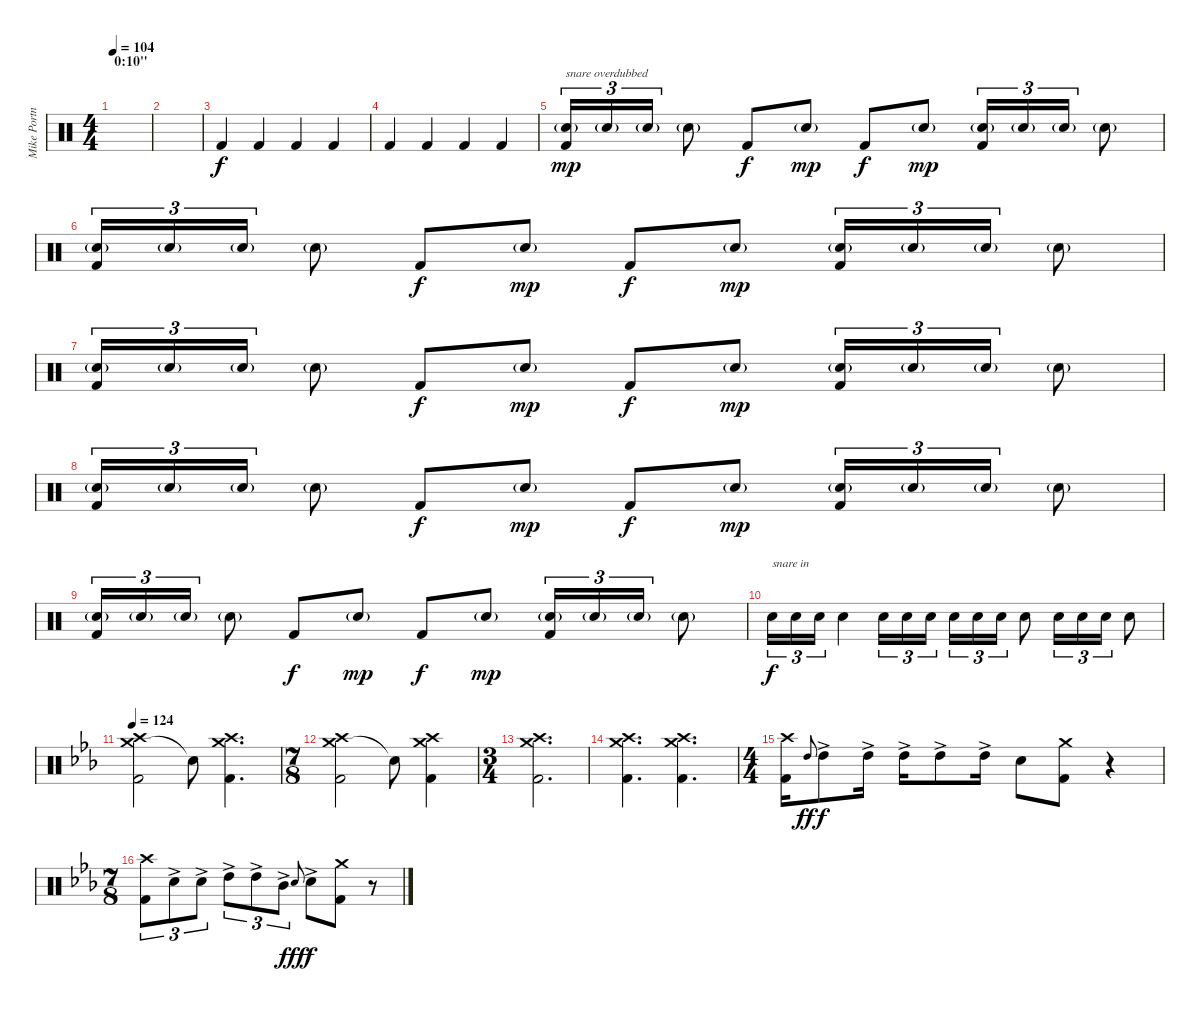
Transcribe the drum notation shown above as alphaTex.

\track ("Mike Portnoy" "Mike Portn") {instrument percussion}
\staff {score}
\articulation defaults
\ts (4 4)
\section ("" "0:10''")
\tempo 104
\clef neutral
\ks c
|
|
"Kick (hit) 2".4 "Kick (hit) 2".4 "Kick (hit) 2".4 "Kick (hit) 2".4 |
"Kick (hit) 2".4 "Kick (hit) 2".4 "Kick (hit) 2".4 "Kick (hit) 2".4 |
("Snare (hit) 2"{g} "Kick (hit) 2").16{tu (3 2) txt "snare overdubbed" dy mp} "Snare (hit) 2"{g}.16{tu (3 2)} "Snare (hit) 2"{g}.16{tu (3 2)} "Snare (hit) 2"{g}.8 "Kick (hit) 2".8{dy f} "Snare (hit) 2"{g}.8{dy mp} "Kick (hit) 2".8{dy f} "Snare (hit) 2"{g}.8{dy mp} ("Snare (hit) 2"{g} "Kick (hit) 2").16{tu (3 2)} "Snare (hit) 2"{g}.16{tu (3 2)} "Snare (hit) 2"{g}.16{tu (3 2)} "Snare (hit) 2"{g}.8 |
("Snare (hit) 2"{g} "Kick (hit) 2").16{tu (3 2)} "Snare (hit) 2"{g}.16{tu (3 2)} "Snare (hit) 2"{g}.16{tu (3 2)} "Snare (hit) 2"{g}.8 "Kick (hit) 2".8{dy f} "Snare (hit) 2"{g}.8{dy mp} "Kick (hit) 2".8{dy f} "Snare (hit) 2"{g}.8{dy mp} ("Snare (hit) 2"{g} "Kick (hit) 2").16{tu (3 2)} "Snare (hit) 2"{g}.16{tu (3 2)} "Snare (hit) 2"{g}.16{tu (3 2)} "Snare (hit) 2"{g}.8 |
("Snare (hit) 2"{g} "Kick (hit) 2").16{tu (3 2)} "Snare (hit) 2"{g}.16{tu (3 2)} "Snare (hit) 2"{g}.16{tu (3 2)} "Snare (hit) 2"{g}.8 "Kick (hit) 2".8{dy f} "Snare (hit) 2"{g}.8{dy mp} "Kick (hit) 2".8{dy f} "Snare (hit) 2"{g}.8{dy mp} ("Snare (hit) 2"{g} "Kick (hit) 2").16{tu (3 2)} "Snare (hit) 2"{g}.16{tu (3 2)} "Snare (hit) 2"{g}.16{tu (3 2)} "Snare (hit) 2"{g}.8 |
("Snare (hit) 2"{g} "Kick (hit) 2").16{tu (3 2)} "Snare (hit) 2"{g}.16{tu (3 2)} "Snare (hit) 2"{g}.16{tu (3 2)} "Snare (hit) 2"{g}.8 "Kick (hit) 2".8{dy f} "Snare (hit) 2"{g}.8{dy mp} "Kick (hit) 2".8{dy f} "Snare (hit) 2"{g}.8{dy mp} ("Snare (hit) 2"{g} "Kick (hit) 2").16{tu (3 2)} "Snare (hit) 2"{g}.16{tu (3 2)} "Snare (hit) 2"{g}.16{tu (3 2)} "Snare (hit) 2"{g}.8 |
("Snare (hit) 2"{g} "Kick (hit) 2").16{tu (3 2)} "Snare (hit) 2"{g}.16{tu (3 2)} "Snare (hit) 2"{g}.16{tu (3 2)} "Snare (hit) 2"{g}.8 "Kick (hit) 2".8{dy f} "Snare (hit) 2"{g}.8{dy mp} "Kick (hit) 2".8{dy f} "Snare (hit) 2"{g}.8{dy mp} ("Snare (hit) 2"{g} "Kick (hit) 2").16{tu (3 2)} "Snare (hit) 2"{g}.16{tu (3 2)} "Snare (hit) 2"{g}.16{tu (3 2)} "Snare (hit) 2"{g}.8 |
"Electric Snare (hit)".16{tu (3 2) txt "snare in" dy f} "Electric Snare (hit)".16{tu (3 2)} "Electric Snare (hit)".16{tu (3 2)} "Electric Snare (hit)".4 "Electric Snare (hit)".16{tu (3 2)} "Electric Snare (hit)".16{tu (3 2)} "Electric Snare (hit)".16{tu (3 2)} "Electric Snare (hit)".16{tu (3 2)} "Electric Snare (hit)".16{tu (3 2)} "Electric Snare (hit)".16{tu (3 2)} "Electric Snare (hit)".8 "Electric Snare (hit)".16{tu (3 2)} "Electric Snare (hit)".16{tu (3 2)} "Electric Snare (hit)".16{tu (3 2)} "Electric Snare (hit)".8 |
\tempo 124
\ks eb
("Crash medium (hit)" "Crash high (hit)" "Kick (hit) 2").2 "Snare (hit)"{t}.8 ("Crash medium (hit)" "Crash high (hit)" "Kick (hit) 2").4{d} |
\ts (7 8)
("Crash medium (hit)" "Crash high (hit)" "Kick (hit) 2").2 "Snare (hit)"{t}.8 ("Crash medium (hit)" "Crash high (hit)" "Kick (hit) 2").4 |
\ts (3 4)
("Crash medium (hit)" "Crash high (hit)" "Kick (hit) 2").2{d} |
("Crash medium (hit)" "Crash high (hit)" "Kick (hit) 2").4{d} ("Crash medium (hit)" "Crash high (hit)" "Kick (hit) 2").4{d} |
\ts (4 4)
("Crash high (hit)" "Kick (hit) 2").16 "High Tom (hit)".8{gr onbeat dy ff} "High Tom (hit)"{ac}.8{dy f} "High Tom (hit)"{ac}.16 "High Tom (hit)"{ac}.16 "High Tom (hit)"{ac}.8 "High Tom (hit)"{ac}.16 "Electric Snare (hit)".8 ("Crash medium (hit)" "Kick (hit) 2").8 r.4 |
\ts (7 8)
("Crash high (hit)" "Kick (hit) 2").8{tu (3 2)} "Electric Snare (hit)"{ac}.8{tu (3 2)} "Electric Snare (hit)"{ac}.8{tu (3 2)} "High Tom (hit)"{ac}.8{tu (3 2)} "High Tom (hit)"{ac}.8{tu (3 2)} "Mid Tom (hit)"{ac}.8{tu (3 2)} "Electric Snare (hit)".8{gr onbeat dy fff} "Electric Snare (hit)"{ac}.8{dy f} ("Crash medium (hit)" "Kick (hit) 2").8 r.8
